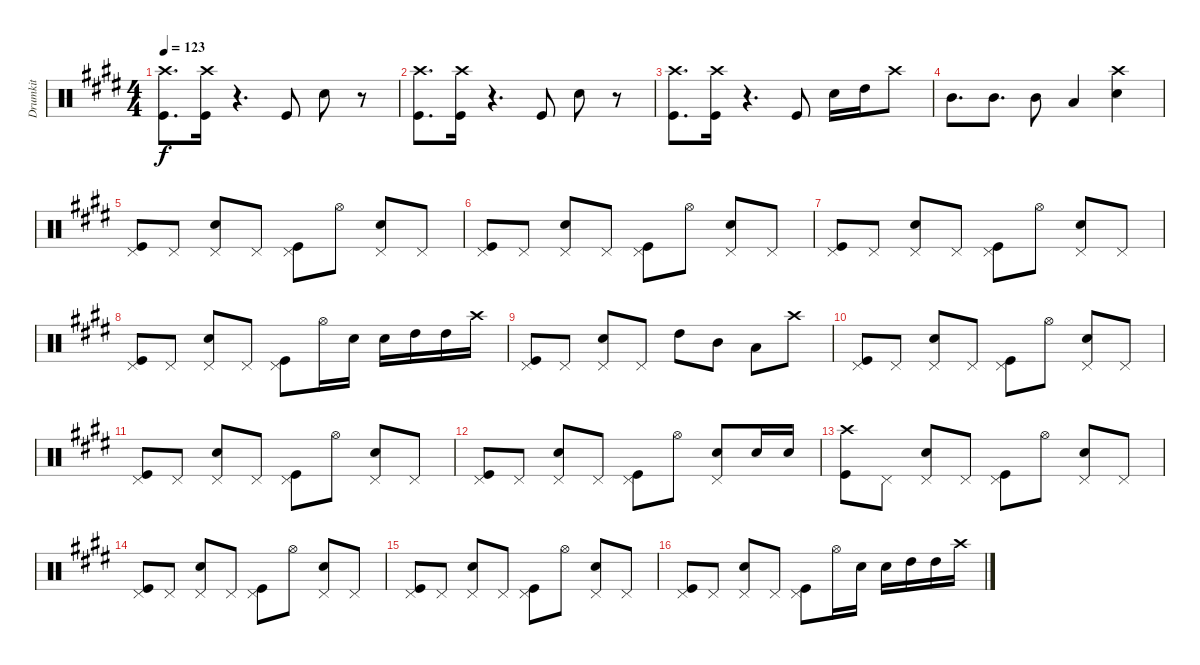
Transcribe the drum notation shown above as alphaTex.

\track ("Drumkit" "Drumkit") {instrument percussion}
\staff {score}
\articulation defaults
\ts (4 4)
\tempo 123
\clef neutral
\ks e
("Crash high (hit)" "Kick (hit)").8{d dy f} ("Crash high (hit)" "Kick (hit)").16 r.4{d} "Kick (hit)".8 "Snare (hit) 2".8 r.8 |
("Crash high (hit)" "Kick (hit)").8{d} ("Crash high (hit)" "Kick (hit)").16 r.4{d} "Kick (hit)".8 "Snare (hit) 2".8 r.8 |
("Crash high (hit)" "Kick (hit)").8{d} ("Crash high (hit)" "Kick (hit)").16 r.4{d} "Kick (hit)".8 "Snare (hit) 2".16 "High Tom (hit)".16 "Crash high (hit)".8 |
"Mid Tom (hit)".8{d} "Mid Tom (hit)".8{d} "Mid Tom (hit)".8 "Low Tom (hit)".4 ("Crash high (hit)" "Snare (hit) 2").4 |
("Pedal Hi-Hat (hit)" "Kick (hit)").8 "Pedal Hi-Hat (hit)".8 ("Pedal Hi-Hat (hit)" "Snare (hit) 2").8 "Pedal Hi-Hat (hit)".8 ("Pedal Hi-Hat (hit)" "Kick (hit)").8 "Hi-Hat (open)".8 ("Pedal Hi-Hat (hit)" "Snare (hit) 2").8 "Pedal Hi-Hat (hit)".8 |
("Pedal Hi-Hat (hit)" "Kick (hit)").8 "Pedal Hi-Hat (hit)".8 ("Pedal Hi-Hat (hit)" "Snare (hit) 2").8 "Pedal Hi-Hat (hit)".8 ("Pedal Hi-Hat (hit)" "Kick (hit)").8 "Hi-Hat (open)".8 ("Pedal Hi-Hat (hit)" "Snare (hit) 2").8 "Pedal Hi-Hat (hit)".8 |
("Pedal Hi-Hat (hit)" "Kick (hit)").8 "Pedal Hi-Hat (hit)".8 ("Pedal Hi-Hat (hit)" "Snare (hit) 2").8 "Pedal Hi-Hat (hit)".8 ("Pedal Hi-Hat (hit)" "Kick (hit)").8 "Hi-Hat (open)".8 ("Pedal Hi-Hat (hit)" "Snare (hit) 2").8 "Pedal Hi-Hat (hit)".8 |
("Pedal Hi-Hat (hit)" "Kick (hit)").8 "Pedal Hi-Hat (hit)".8 ("Pedal Hi-Hat (hit)" "Snare (hit) 2").8 "Pedal Hi-Hat (hit)".8 ("Pedal Hi-Hat (hit)" "Kick (hit)").8 "Hi-Hat (open)".16 "Snare (hit) 2".16 "Snare (hit) 2".16 "High Tom (hit)".16 "High Tom (hit)".16 "Crash high (hit)".16 |
("Pedal Hi-Hat (hit)" "Kick (hit)").8 "Pedal Hi-Hat (hit)".8 ("Pedal Hi-Hat (hit)" "Snare (hit) 2").8 "Pedal Hi-Hat (hit)".8 "High Tom (hit)".8 "Mid Tom (hit)".8 "Low Tom (hit)".8 "Crash high (hit)".8 |
("Pedal Hi-Hat (hit)" "Kick (hit)").8 "Pedal Hi-Hat (hit)".8 ("Pedal Hi-Hat (hit)" "Snare (hit) 2").8 "Pedal Hi-Hat (hit)".8 ("Pedal Hi-Hat (hit)" "Kick (hit)").8 "Hi-Hat (open)".8 ("Pedal Hi-Hat (hit)" "Snare (hit) 2").8 "Pedal Hi-Hat (hit)".8 |
("Pedal Hi-Hat (hit)" "Kick (hit)").8 "Pedal Hi-Hat (hit)".8 ("Pedal Hi-Hat (hit)" "Snare (hit) 2").8 "Pedal Hi-Hat (hit)".8 ("Pedal Hi-Hat (hit)" "Kick (hit)").8 "Hi-Hat (open)".8 ("Pedal Hi-Hat (hit)" "Snare (hit) 2").8 "Pedal Hi-Hat (hit)".8 |
("Pedal Hi-Hat (hit)" "Kick (hit)").8 "Pedal Hi-Hat (hit)".8 ("Pedal Hi-Hat (hit)" "Snare (hit) 2").8 "Pedal Hi-Hat (hit)".8 ("Pedal Hi-Hat (hit)" "Kick (hit)").8 "Hi-Hat (open)".8 ("Pedal Hi-Hat (hit)" "Snare (hit) 2").8 "Snare (hit) 2".16 "Snare (hit) 2".16 |
("Crash high (hit)" "Kick (hit)").8 "Pedal Hi-Hat (hit)".8 ("Pedal Hi-Hat (hit)" "Snare (hit) 2").8 "Pedal Hi-Hat (hit)".8 ("Pedal Hi-Hat (hit)" "Kick (hit)").8 "Hi-Hat (open)".8 ("Pedal Hi-Hat (hit)" "Snare (hit) 2").8 "Pedal Hi-Hat (hit)".8 |
("Pedal Hi-Hat (hit)" "Kick (hit)").8 "Pedal Hi-Hat (hit)".8 ("Pedal Hi-Hat (hit)" "Snare (hit) 2").8 "Pedal Hi-Hat (hit)".8 ("Pedal Hi-Hat (hit)" "Kick (hit)").8 "Hi-Hat (open)".8 ("Pedal Hi-Hat (hit)" "Snare (hit) 2").8 "Pedal Hi-Hat (hit)".8 |
("Pedal Hi-Hat (hit)" "Kick (hit)").8 "Pedal Hi-Hat (hit)".8 ("Pedal Hi-Hat (hit)" "Snare (hit) 2").8 "Pedal Hi-Hat (hit)".8 ("Pedal Hi-Hat (hit)" "Kick (hit)").8 "Hi-Hat (open)".8 ("Pedal Hi-Hat (hit)" "Snare (hit) 2").8 "Pedal Hi-Hat (hit)".8 |
("Pedal Hi-Hat (hit)" "Kick (hit)").8 "Pedal Hi-Hat (hit)".8 ("Pedal Hi-Hat (hit)" "Snare (hit) 2").8 "Pedal Hi-Hat (hit)".8 ("Pedal Hi-Hat (hit)" "Kick (hit)").8 "Hi-Hat (open)".16 "Snare (hit) 2".16 "Snare (hit) 2".16 "High Tom (hit)".16 "High Tom (hit)".16 "Crash high (hit)".16
